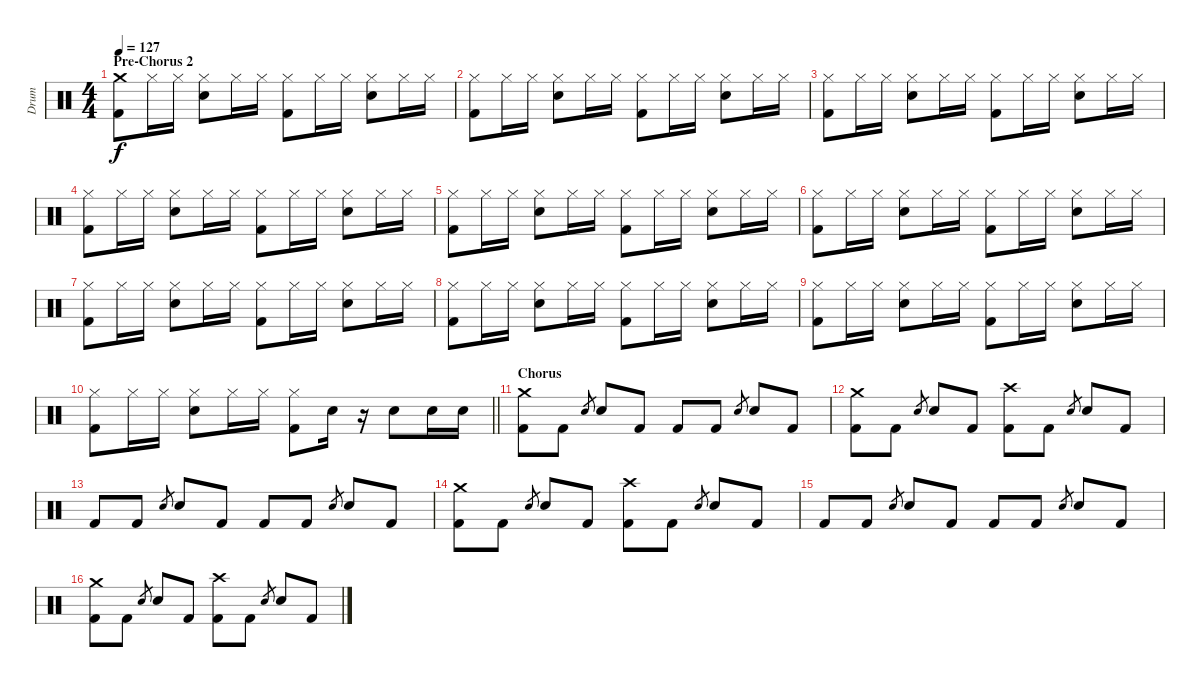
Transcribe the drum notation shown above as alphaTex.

\track ("Drum" "Drum") {instrument percussion}
\staff {score}
\articulation defaults
\ts (4 4)
\section ("" "Pre-Chorus 2")
\tempo 127
\clef neutral
\ks c
("Crash medium (hit)" "Kick (hit) 2").8{dy f} "Hi-Hat (closed)".16 "Hi-Hat (closed)".16 ("Hi-Hat (closed)" "Electric Snare (hit)").8 "Hi-Hat (closed)".16 "Hi-Hat (closed)".16 ("Hi-Hat (closed)" "Kick (hit) 2").8 "Hi-Hat (closed)".16 "Hi-Hat (closed)".16 ("Hi-Hat (closed)" "Electric Snare (hit)").8 "Hi-Hat (closed)".16 "Hi-Hat (closed)".16 |
("Hi-Hat (closed)" "Kick (hit) 2").8 "Hi-Hat (closed)".16 "Hi-Hat (closed)".16 ("Hi-Hat (closed)" "Electric Snare (hit)").8 "Hi-Hat (closed)".16 "Hi-Hat (closed)".16 ("Hi-Hat (closed)" "Kick (hit) 2").8 "Hi-Hat (closed)".16 "Hi-Hat (closed)".16 ("Hi-Hat (closed)" "Electric Snare (hit)").8 "Hi-Hat (closed)".16 "Hi-Hat (closed)".16 |
("Hi-Hat (closed)" "Kick (hit) 2").8 "Hi-Hat (closed)".16 "Hi-Hat (closed)".16 ("Hi-Hat (closed)" "Electric Snare (hit)").8 "Hi-Hat (closed)".16 "Hi-Hat (closed)".16 ("Hi-Hat (closed)" "Kick (hit) 2").8 "Hi-Hat (closed)".16 "Hi-Hat (closed)".16 ("Hi-Hat (closed)" "Electric Snare (hit)").8 "Hi-Hat (closed)".16 "Hi-Hat (closed)".16 |
("Hi-Hat (closed)" "Kick (hit) 2").8 "Hi-Hat (closed)".16 "Hi-Hat (closed)".16 ("Hi-Hat (closed)" "Electric Snare (hit)").8 "Hi-Hat (closed)".16 "Hi-Hat (closed)".16 ("Hi-Hat (closed)" "Kick (hit) 2").8 "Hi-Hat (closed)".16 "Hi-Hat (closed)".16 ("Hi-Hat (closed)" "Electric Snare (hit)").8 "Hi-Hat (closed)".16 "Hi-Hat (closed)".16 |
("Hi-Hat (closed)" "Kick (hit) 2").8 "Hi-Hat (closed)".16 "Hi-Hat (closed)".16 ("Hi-Hat (closed)" "Electric Snare (hit)").8 "Hi-Hat (closed)".16 "Hi-Hat (closed)".16 ("Hi-Hat (closed)" "Kick (hit) 2").8 "Hi-Hat (closed)".16 "Hi-Hat (closed)".16 ("Hi-Hat (closed)" "Electric Snare (hit)").8 "Hi-Hat (closed)".16 "Hi-Hat (closed)".16 |
("Hi-Hat (closed)" "Kick (hit) 2").8 "Hi-Hat (closed)".16 "Hi-Hat (closed)".16 ("Hi-Hat (closed)" "Electric Snare (hit)").8 "Hi-Hat (closed)".16 "Hi-Hat (closed)".16 ("Hi-Hat (closed)" "Kick (hit) 2").8 "Hi-Hat (closed)".16 "Hi-Hat (closed)".16 ("Hi-Hat (closed)" "Electric Snare (hit)").8 "Hi-Hat (closed)".16 "Hi-Hat (closed)".16 |
("Hi-Hat (closed)" "Kick (hit) 2").8 "Hi-Hat (closed)".16 "Hi-Hat (closed)".16 ("Hi-Hat (closed)" "Electric Snare (hit)").8 "Hi-Hat (closed)".16 "Hi-Hat (closed)".16 ("Hi-Hat (closed)" "Kick (hit) 2").8 "Hi-Hat (closed)".16 "Hi-Hat (closed)".16 ("Hi-Hat (closed)" "Electric Snare (hit)").8 "Hi-Hat (closed)".16 "Hi-Hat (closed)".16 |
("Hi-Hat (closed)" "Kick (hit) 2").8 "Hi-Hat (closed)".16 "Hi-Hat (closed)".16 ("Hi-Hat (closed)" "Electric Snare (hit)").8 "Hi-Hat (closed)".16 "Hi-Hat (closed)".16 ("Hi-Hat (closed)" "Kick (hit) 2").8 "Hi-Hat (closed)".16 "Hi-Hat (closed)".16 ("Hi-Hat (closed)" "Electric Snare (hit)").8 "Hi-Hat (closed)".16 "Hi-Hat (closed)".16 |
("Hi-Hat (closed)" "Kick (hit) 2").8 "Hi-Hat (closed)".16 "Hi-Hat (closed)".16 ("Hi-Hat (closed)" "Electric Snare (hit)").8 "Hi-Hat (closed)".16 "Hi-Hat (closed)".16 ("Hi-Hat (closed)" "Kick (hit) 2").8 "Hi-Hat (closed)".16 "Hi-Hat (closed)".16 ("Hi-Hat (closed)" "Electric Snare (hit)").8 "Hi-Hat (closed)".16 "Hi-Hat (closed)".16 |
\barLineRight lightlight
("Hi-Hat (closed)" "Kick (hit) 2").8 "Hi-Hat (closed)".16 "Hi-Hat (closed)".16 ("Hi-Hat (closed)" "Electric Snare (hit)").8 "Hi-Hat (closed)".16 "Hi-Hat (closed)".16 ("Hi-Hat (closed)" "Kick (hit) 2").8 "Electric Snare (hit)".16 r.16 "Electric Snare (hit)".8 "Electric Snare (hit)".16 "Electric Snare (hit)".16 |
\section ("" "Chorus")
("Crash medium (hit)" "Kick (hit) 2").8 "Kick (hit) 2".8 "Electric Snare (hit)".8{gr} "Electric Snare (hit)".8 "Kick (hit) 2".8 "Kick (hit) 2".8 "Kick (hit) 2".8 "Electric Snare (hit)".8{gr} "Electric Snare (hit)".8 "Kick (hit) 2".8 |
("Crash medium (hit)" "Kick (hit) 2").8 "Kick (hit) 2".8 "Electric Snare (hit)".8{gr} "Electric Snare (hit)".8 "Kick (hit) 2".8 ("Crash high (hit)" "Kick (hit) 2").8 "Kick (hit) 2".8 "Electric Snare (hit)".8{gr} "Electric Snare (hit)".8 "Kick (hit) 2".8 |
"Kick (hit) 2".8 "Kick (hit) 2".8 "Electric Snare (hit)".8{gr} "Electric Snare (hit)".8 "Kick (hit) 2".8 "Kick (hit) 2".8 "Kick (hit) 2".8 "Electric Snare (hit)".8{gr} "Electric Snare (hit)".8 "Kick (hit) 2".8 |
("Crash medium (hit)" "Kick (hit) 2").8 "Kick (hit) 2".8 "Electric Snare (hit)".8{gr} "Electric Snare (hit)".8 "Kick (hit) 2".8 ("Crash high (hit)" "Kick (hit) 2").8 "Kick (hit) 2".8 "Electric Snare (hit)".8{gr} "Electric Snare (hit)".8 "Kick (hit) 2".8 |
"Kick (hit) 2".8 "Kick (hit) 2".8 "Electric Snare (hit)".8{gr} "Electric Snare (hit)".8 "Kick (hit) 2".8 "Kick (hit) 2".8 "Kick (hit) 2".8 "Electric Snare (hit)".8{gr} "Electric Snare (hit)".8 "Kick (hit) 2".8 |
("Crash medium (hit)" "Kick (hit) 2").8 "Kick (hit) 2".8 "Electric Snare (hit)".8{gr} "Electric Snare (hit)".8 "Kick (hit) 2".8 ("Crash high (hit)" "Kick (hit) 2").8 "Kick (hit) 2".8 "Electric Snare (hit)".8{gr} "Electric Snare (hit)".8 "Kick (hit) 2".8
